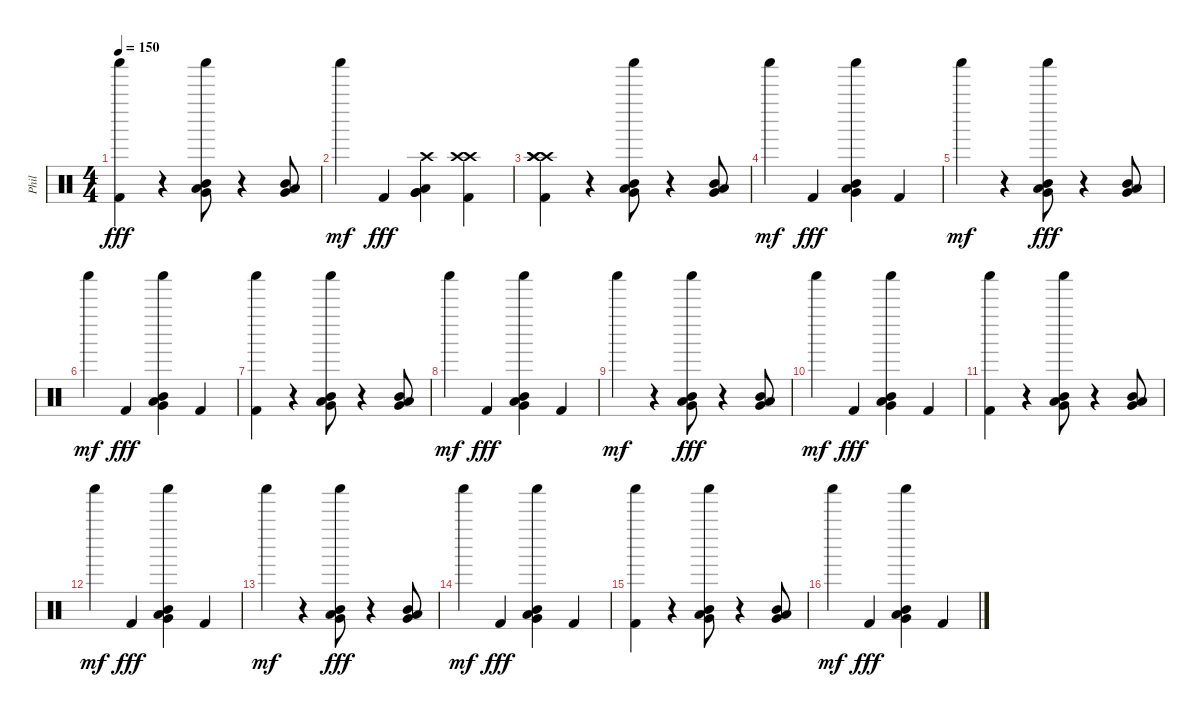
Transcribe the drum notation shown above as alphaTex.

\track ("Phil" "Phil") {instrument percussion}
\staff {score}
\articulation defaults
\ts (4 4)
\tempo 150
\clef neutral
\ks c
("Shaker (hit)" "Kick (hit) 2").4{dy fff} r.4 ("Shaker (hit)" "Mid Tom (hit)" "Low Floor Tom (hit)" "Very Low Tom (hit)").8 r.4 ("Low Floor Tom (hit)" "Mid Tom (hit)" "Very Low Tom (hit)").8 |
"Shaker (hit)".4{dy mf} "Kick (hit) 2".4{dy fff} ("Crash high (hit)" "Very Low Tom (hit)" "Low Floor Tom (hit)" "Very Low Tom (hit)").4 ("Crash high (hit)" "Crash high (hit)" "Kick (hit) 2").4 |
("Crash high (hit)" "Crash high (hit)" "Crash high (hit)" "Kick (hit) 2").4 r.4 ("Shaker (hit)" "Mid Tom (hit)" "Low Floor Tom (hit)" "Very Low Tom (hit)").8 r.4 ("Very Low Tom (hit)" "Mid Tom (hit)" "Low Floor Tom (hit)").8 |
"Shaker (hit)".4{dy mf} "Kick (hit) 2".4{dy fff} ("Shaker (hit)" "Mid Tom (hit)" "Very Low Tom (hit)" "Low Floor Tom (hit)").4 "Kick (hit) 2".4 |
"Shaker (hit)".4{dy mf} r.4 ("Shaker (hit)" "Mid Tom (hit)" "Very Low Tom (hit)" "Low Floor Tom (hit)").8{dy fff} r.4 ("Mid Tom (hit)" "Very Low Tom (hit)" "Low Floor Tom (hit)").8 |
"Shaker (hit)".4{dy mf} "Kick (hit) 2".4{dy fff} ("Shaker (hit)" "Very Low Tom (hit)" "Low Floor Tom (hit)" "Mid Tom (hit)").4 "Kick (hit) 2".4 |
("Shaker (hit)" "Kick (hit) 2").4 r.4 ("Shaker (hit)" "Mid Tom (hit)" "Low Floor Tom (hit)" "Very Low Tom (hit)").8 r.4 ("Very Low Tom (hit)" "Mid Tom (hit)" "Low Floor Tom (hit)").8 |
"Shaker (hit)".4{dy mf} "Kick (hit) 2".4{dy fff} ("Shaker (hit)" "Mid Tom (hit)" "Very Low Tom (hit)" "Low Floor Tom (hit)").4 "Kick (hit) 2".4 |
"Shaker (hit)".4{dy mf} r.4 ("Shaker (hit)" "Mid Tom (hit)" "Very Low Tom (hit)" "Low Floor Tom (hit)").8{dy fff} r.4 ("Mid Tom (hit)" "Very Low Tom (hit)" "Low Floor Tom (hit)").8 |
"Shaker (hit)".4{dy mf} "Kick (hit) 2".4{dy fff} ("Shaker (hit)" "Very Low Tom (hit)" "Low Floor Tom (hit)" "Mid Tom (hit)").4 "Kick (hit) 2".4 |
("Shaker (hit)" "Kick (hit) 2").4 r.4 ("Shaker (hit)" "Mid Tom (hit)" "Low Floor Tom (hit)" "Very Low Tom (hit)").8 r.4 ("Low Floor Tom (hit)" "Mid Tom (hit)" "Very Low Tom (hit)").8 |
"Shaker (hit)".4{dy mf} "Kick (hit) 2".4{dy fff} ("Shaker (hit)" "Mid Tom (hit)" "Low Floor Tom (hit)" "Very Low Tom (hit)").4 "Kick (hit) 2".4 |
"Shaker (hit)".4{dy mf} r.4 ("Shaker (hit)" "Mid Tom (hit)" "Very Low Tom (hit)" "Low Floor Tom (hit)").8{dy fff} r.4 ("Mid Tom (hit)" "Very Low Tom (hit)" "Low Floor Tom (hit)").8 |
"Shaker (hit)".4{dy mf} "Kick (hit) 2".4{dy fff} ("Shaker (hit)" "Very Low Tom (hit)" "Low Floor Tom (hit)" "Mid Tom (hit)").4 "Kick (hit) 2".4 |
("Shaker (hit)" "Kick (hit) 2").4 r.4 ("Shaker (hit)" "Mid Tom (hit)" "Low Floor Tom (hit)" "Very Low Tom (hit)").8 r.4 ("Very Low Tom (hit)" "Mid Tom (hit)" "Low Floor Tom (hit)").8 |
"Shaker (hit)".4{dy mf} "Kick (hit) 2".4{dy fff} ("Shaker (hit)" "Mid Tom (hit)" "Very Low Tom (hit)" "Low Floor Tom (hit)").4 "Kick (hit) 2".4
